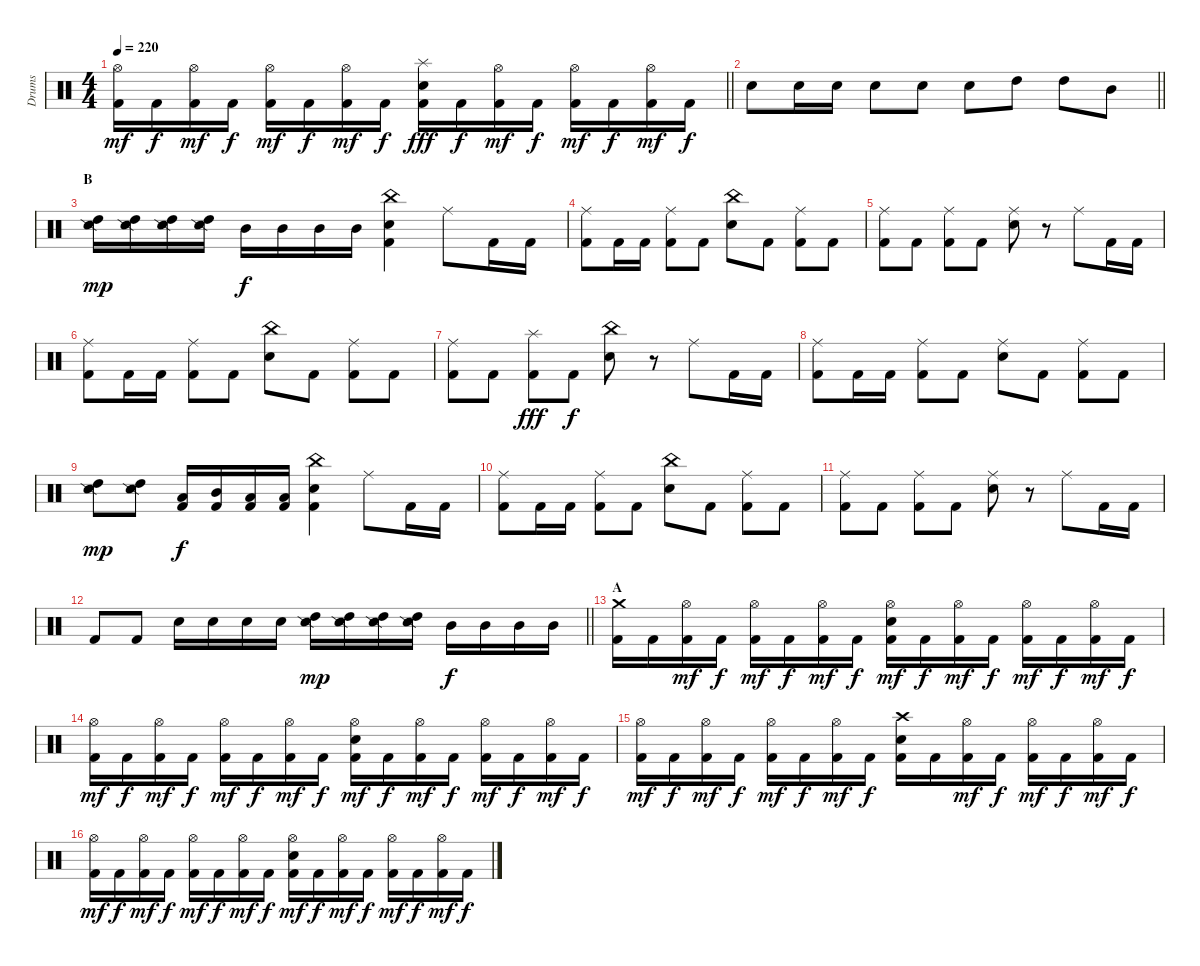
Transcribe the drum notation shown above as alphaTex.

\track ("Drums" "Drums") {instrument percussion}
\staff {score}
\articulation defaults
\ts (4 4)
\tempo 220
\clef neutral
\barLineRight lightlight
\ks c
("Hi-Hat (open)" "Kick (hit) 2").16{dy mf} "Kick (hit) 2".16{dy f} ("Hi-Hat (open)" "Kick (hit) 2").16{dy mf} "Kick (hit) 2".16{dy f} ("Hi-Hat (open)" "Kick (hit) 2").16{dy mf} "Kick (hit) 2".16{dy f} ("Hi-Hat (open)" "Kick (hit) 2").16{dy mf} "Kick (hit) 2".16{dy f} ("Splash (hit)" "Electric Snare (hit)" "Kick (hit) 2").16{dy fff} "Kick (hit) 2".16{dy f} ("Hi-Hat (open)" "Kick (hit) 2").16{dy mf} "Kick (hit) 2".16{dy f} ("Hi-Hat (open)" "Kick (hit) 2").16{dy mf} "Kick (hit) 2".16{dy f} ("Hi-Hat (open)" "Kick (hit) 2").16{dy mf} "Kick (hit) 2".16{dy f} |
\barLineRight lightlight "Electric Snare (hit)".8 "Electric Snare (hit)".16 "Electric Snare (hit)".16 "Electric Snare (hit)".8 "Electric Snare (hit)".8 "Electric Snare (hit)".8 "High Tom (hit)".8 "High Tom (hit)".8 "Mid Tom (hit)".8
|
\section ("" "B")
("High Tom (hit)" "Snare (side stick) 2").16{dy mp} ("High Tom (hit)" "Snare (side stick) 2").16 ("High Tom (hit)" "Snare (side stick) 2").16 ("High Tom (hit)" "Snare (side stick) 2").16 "Mid Tom (hit)".16{dy f} "Mid Tom (hit)".16 "Mid Tom (hit)".16 "Mid Tom (hit)".16 ("China (hit)" "Electric Snare (hit)" "Kick (hit) 2").4 "Ride (middle)".8 "Kick (hit) 2".16 "Kick (hit) 2".16 |
("Ride (middle)" "Kick (hit) 2").8 "Kick (hit) 2".16 "Kick (hit) 2".16 ("Ride (middle)" "Kick (hit) 2").8 "Kick (hit) 2".8 ("China (hit)" "Electric Snare (hit)").8 "Kick (hit) 2".8 ("Ride (middle)" "Kick (hit) 2").8 "Kick (hit) 2".8 |
("Ride (middle)" "Kick (hit) 2").8 "Kick (hit) 2".8 ("Ride (middle)" "Kick (hit) 2").8 "Kick (hit) 2".8 ("Ride (middle)" "Electric Snare (hit)").8 r.8 "Ride (middle)".8 "Kick (hit) 2".16 "Kick (hit) 2".16 |
("Ride (middle)" "Kick (hit) 2").8 "Kick (hit) 2".16 "Kick (hit) 2".16 ("Ride (middle)" "Kick (hit) 2").8 "Kick (hit) 2".8 ("China (hit)" "Electric Snare (hit)").8 "Kick (hit) 2".8 ("Ride (middle)" "Kick (hit) 2").8 "Kick (hit) 2".8 |
("Ride (middle)" "Kick (hit) 2").8 "Kick (hit) 2".8 ("Splash (hit)" "Kick (hit) 2").8{dy fff} "Kick (hit) 2".8{dy f} ("China (hit)" "Electric Snare (hit)").8 r.8 "Ride (middle)".8 "Kick (hit) 2".16 "Kick (hit) 2".16 |
("Ride (middle)" "Kick (hit) 2").8 "Kick (hit) 2".16 "Kick (hit) 2".16 ("Ride (middle)" "Kick (hit) 2").8 "Kick (hit) 2".8 ("Ride (middle)" "Electric Snare (hit)").8 "Kick (hit) 2".8 ("Ride (middle)" "Kick (hit) 2").8 "Kick (hit) 2".8 |
("High Tom (hit)" "Snare (side stick) 2").8{dy mp} ("High Tom (hit)" "Snare (side stick) 2").8 ("Low Tom (hit)" "Kick (hit) 2").16{dy f} ("Mid Tom (hit)" "Kick (hit) 2").16 ("Low Tom (hit)" "Kick (hit) 2").16 ("Low Tom (hit)" "Kick (hit) 2").16 ("China (hit)" "Electric Snare (hit)" "Kick (hit) 2").4 "Ride (middle)".8 "Kick (hit) 2".16 "Kick (hit) 2".16 |
("Ride (middle)" "Kick (hit) 2").8 "Kick (hit) 2".16 "Kick (hit) 2".16 ("Ride (middle)" "Kick (hit) 2").8 "Kick (hit) 2".8 ("China (hit)" "Electric Snare (hit)").8 "Kick (hit) 2".8 ("Ride (middle)" "Kick (hit) 2").8 "Kick (hit) 2".8 |
("Ride (middle)" "Kick (hit) 2").8 "Kick (hit) 2".8 ("Ride (middle)" "Kick (hit) 2").8 "Kick (hit) 2".8 ("Ride (middle)" "Electric Snare (hit)").8 r.8 "Ride (middle)".8 "Kick (hit) 2".16 "Kick (hit) 2".16 |
\barLineRight lightlight "Kick (hit) 2".8 "Kick (hit) 2".8 "Electric Snare (hit)".16 "Electric Snare (hit)".16 "Electric Snare (hit)".16 "Electric Snare (hit)".16
("High Tom (hit)" "Snare (side stick) 2").16{dy mp} ("High Tom (hit)" "Snare (side stick) 2").16 ("High Tom (hit)" "Snare (side stick) 2").16 ("High Tom (hit)" "Snare (side stick) 2").16 "Mid Tom (hit)".16{dy f} "Mid Tom (hit)".16 "Mid Tom (hit)".16 "Mid Tom (hit)".16 |
\section ("" "A")
("Crash medium (hit)" "Kick (hit) 2").16 "Kick (hit) 2".16 ("Hi-Hat (open)" "Kick (hit) 2").16{dy mf} "Kick (hit) 2".16{dy f} ("Hi-Hat (open)" "Kick (hit) 2").16{dy mf} "Kick (hit) 2".16{dy f} ("Hi-Hat (open)" "Kick (hit) 2").16{dy mf} "Kick (hit) 2".16{dy f} ("Hi-Hat (open)" "Electric Snare (hit)" "Kick (hit) 2").16{dy mf} "Kick (hit) 2".16{dy f} ("Hi-Hat (open)" "Kick (hit) 2").16{dy mf} "Kick (hit) 2".16{dy f} ("Hi-Hat (open)" "Kick (hit) 2").16{dy mf} "Kick (hit) 2".16{dy f} ("Hi-Hat (open)" "Kick (hit) 2").16{dy mf} "Kick (hit) 2".16{dy f} |
("Hi-Hat (open)" "Kick (hit) 2").16{dy mf} "Kick (hit) 2".16{dy f} ("Hi-Hat (open)" "Kick (hit) 2").16{dy mf} "Kick (hit) 2".16{dy f} ("Hi-Hat (open)" "Kick (hit) 2").16{dy mf} "Kick (hit) 2".16{dy f} ("Hi-Hat (open)" "Kick (hit) 2").16{dy mf} "Kick (hit) 2".16{dy f} ("Hi-Hat (open)" "Electric Snare (hit)" "Kick (hit) 2").16{dy mf} "Kick (hit) 2".16{dy f} ("Hi-Hat (open)" "Kick (hit) 2").16{dy mf} "Kick (hit) 2".16{dy f} ("Hi-Hat (open)" "Kick (hit) 2").16{dy mf} "Kick (hit) 2".16{dy f} ("Hi-Hat (open)" "Kick (hit) 2").16{dy mf} "Kick (hit) 2".16{dy f} |
("Hi-Hat (open)" "Kick (hit) 2").16{dy mf} "Kick (hit) 2".16{dy f} ("Hi-Hat (open)" "Kick (hit) 2").16{dy mf} "Kick (hit) 2".16{dy f} ("Hi-Hat (open)" "Kick (hit) 2").16{dy mf} "Kick (hit) 2".16{dy f} ("Hi-Hat (open)" "Kick (hit) 2").16{dy mf} "Kick (hit) 2".16{dy f} ("Crash high (hit)" "Electric Snare (hit)" "Kick (hit) 2").16 "Kick (hit) 2".16 ("Hi-Hat (open)" "Kick (hit) 2").16{dy mf} "Kick (hit) 2".16{dy f} ("Hi-Hat (open)" "Kick (hit) 2").16{dy mf} "Kick (hit) 2".16{dy f} ("Hi-Hat (open)" "Kick (hit) 2").16{dy mf} "Kick (hit) 2".16{dy f} |
("Hi-Hat (open)" "Kick (hit) 2").16{dy mf} "Kick (hit) 2".16{dy f} ("Hi-Hat (open)" "Kick (hit) 2").16{dy mf} "Kick (hit) 2".16{dy f} ("Hi-Hat (open)" "Kick (hit) 2").16{dy mf} "Kick (hit) 2".16{dy f} ("Hi-Hat (open)" "Kick (hit) 2").16{dy mf} "Kick (hit) 2".16{dy f} ("Hi-Hat (open)" "Electric Snare (hit)" "Kick (hit) 2").16{dy mf} "Kick (hit) 2".16{dy f} ("Hi-Hat (open)" "Kick (hit) 2").16{dy mf} "Kick (hit) 2".16{dy f} ("Hi-Hat (open)" "Kick (hit) 2").16{dy mf} "Kick (hit) 2".16{dy f} ("Hi-Hat (open)" "Kick (hit) 2").16{dy mf} "Kick (hit) 2".16{dy f}
